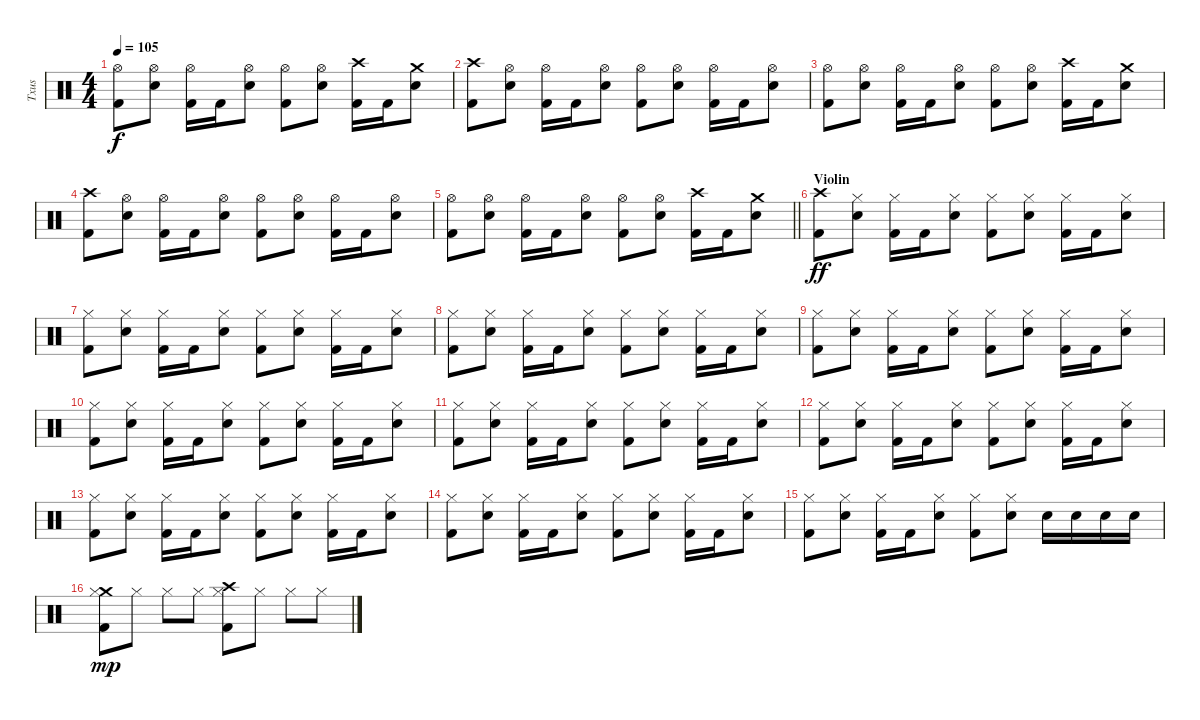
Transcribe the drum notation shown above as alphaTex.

\track ("Txus" "Txus") {instrument percussion}
\staff {score}
\articulation defaults
\ts (4 4)
\tempo 105
\clef neutral
\ks c
("Hi-Hat (open)" "Kick (hit) 2").8{dy f} ("Hi-Hat (open)" "Electric Snare (hit)").8 ("Hi-Hat (open)" "Kick (hit) 2").16 "Kick (hit) 2".16 ("Hi-Hat (open)" "Electric Snare (hit)").8 ("Hi-Hat (open)" "Kick (hit) 2").8 ("Hi-Hat (open)" "Electric Snare (hit)").8 ("Crash high (hit)" "Kick (hit) 2").16 "Kick (hit) 2".16 ("Crash medium (hit)" "Electric Snare (hit)").8 |
("Crash high (hit)" "Kick (hit) 2").8 ("Hi-Hat (open)" "Electric Snare (hit)").8 ("Hi-Hat (open)" "Kick (hit) 2").16 "Kick (hit) 2".16 ("Hi-Hat (open)" "Electric Snare (hit)").8 ("Hi-Hat (open)" "Kick (hit) 2").8 ("Hi-Hat (open)" "Electric Snare (hit)").8 ("Hi-Hat (open)" "Kick (hit) 2").16 "Kick (hit) 2".16 ("Hi-Hat (open)" "Electric Snare (hit)").8 |
("Hi-Hat (open)" "Kick (hit) 2").8 ("Hi-Hat (open)" "Electric Snare (hit)").8 ("Hi-Hat (open)" "Kick (hit) 2").16 "Kick (hit) 2".16 ("Hi-Hat (open)" "Electric Snare (hit)").8 ("Hi-Hat (open)" "Kick (hit) 2").8 ("Hi-Hat (open)" "Electric Snare (hit)").8 ("Crash high (hit)" "Kick (hit) 2").16 "Kick (hit) 2".16 ("Crash medium (hit)" "Electric Snare (hit)").8 |
("Crash high (hit)" "Kick (hit) 2").8 ("Hi-Hat (open)" "Electric Snare (hit)").8 ("Hi-Hat (open)" "Kick (hit) 2").16 "Kick (hit) 2".16 ("Hi-Hat (open)" "Electric Snare (hit)").8 ("Hi-Hat (open)" "Kick (hit) 2").8 ("Hi-Hat (open)" "Electric Snare (hit)").8 ("Hi-Hat (open)" "Kick (hit) 2").16 "Kick (hit) 2".16 ("Hi-Hat (open)" "Electric Snare (hit)").8 |
\barLineRight lightlight
("Hi-Hat (open)" "Kick (hit) 2").8 ("Hi-Hat (open)" "Electric Snare (hit)").8 ("Hi-Hat (open)" "Kick (hit) 2").16 "Kick (hit) 2".16 ("Hi-Hat (open)" "Electric Snare (hit)").8 ("Hi-Hat (open)" "Kick (hit) 2").8 ("Hi-Hat (open)" "Electric Snare (hit)").8 ("Crash high (hit)" "Kick (hit) 2").16 "Kick (hit) 2".16 ("Crash medium (hit)" "Electric Snare (hit)").8 |
\section ("" "Violin")
("Crash high (hit)" "Kick (hit) 2").8{dy ff} ("Hi-Hat (closed)" "Electric Snare (hit)").8 ("Hi-Hat (closed)" "Kick (hit) 2").16 "Kick (hit) 2".16 ("Hi-Hat (closed)" "Electric Snare (hit)").8 ("Hi-Hat (closed)" "Kick (hit) 2").8 ("Hi-Hat (closed)" "Electric Snare (hit)").8 ("Hi-Hat (closed)" "Kick (hit) 2").16 "Kick (hit) 2".16 ("Hi-Hat (closed)" "Electric Snare (hit)").8 |
("Hi-Hat (closed)" "Kick (hit) 2").8 ("Hi-Hat (closed)" "Electric Snare (hit)").8 ("Hi-Hat (closed)" "Kick (hit) 2").16 "Kick (hit) 2".16 ("Hi-Hat (closed)" "Electric Snare (hit)").8 ("Hi-Hat (closed)" "Kick (hit) 2").8 ("Hi-Hat (closed)" "Electric Snare (hit)").8 ("Hi-Hat (closed)" "Kick (hit) 2").16 "Kick (hit) 2".16 ("Hi-Hat (closed)" "Electric Snare (hit)").8 |
("Hi-Hat (closed)" "Kick (hit) 2").8 ("Hi-Hat (closed)" "Electric Snare (hit)").8 ("Hi-Hat (closed)" "Kick (hit) 2").16 "Kick (hit) 2".16 ("Hi-Hat (closed)" "Electric Snare (hit)").8 ("Hi-Hat (closed)" "Kick (hit) 2").8 ("Hi-Hat (closed)" "Electric Snare (hit)").8 ("Hi-Hat (closed)" "Kick (hit) 2").16 "Kick (hit) 2".16 ("Hi-Hat (closed)" "Electric Snare (hit)").8 |
("Hi-Hat (closed)" "Kick (hit) 2").8 ("Hi-Hat (closed)" "Electric Snare (hit)").8 ("Hi-Hat (closed)" "Kick (hit) 2").16 "Kick (hit) 2".16 ("Hi-Hat (closed)" "Electric Snare (hit)").8 ("Hi-Hat (closed)" "Kick (hit) 2").8 ("Hi-Hat (closed)" "Electric Snare (hit)").8 ("Hi-Hat (closed)" "Kick (hit) 2").16 "Kick (hit) 2".16 ("Hi-Hat (closed)" "Electric Snare (hit)").8 |
("Hi-Hat (closed)" "Kick (hit) 2").8 ("Hi-Hat (closed)" "Electric Snare (hit)").8 ("Hi-Hat (closed)" "Kick (hit) 2").16 "Kick (hit) 2".16 ("Hi-Hat (closed)" "Electric Snare (hit)").8 ("Hi-Hat (closed)" "Kick (hit) 2").8 ("Hi-Hat (closed)" "Electric Snare (hit)").8 ("Hi-Hat (closed)" "Kick (hit) 2").16 "Kick (hit) 2".16 ("Hi-Hat (closed)" "Electric Snare (hit)").8 |
("Hi-Hat (closed)" "Kick (hit) 2").8 ("Hi-Hat (closed)" "Electric Snare (hit)").8 ("Hi-Hat (closed)" "Kick (hit) 2").16 "Kick (hit) 2".16 ("Hi-Hat (closed)" "Electric Snare (hit)").8 ("Hi-Hat (closed)" "Kick (hit) 2").8 ("Hi-Hat (closed)" "Electric Snare (hit)").8 ("Hi-Hat (closed)" "Kick (hit) 2").16 "Kick (hit) 2".16 ("Hi-Hat (closed)" "Electric Snare (hit)").8 |
("Hi-Hat (closed)" "Kick (hit) 2").8 ("Hi-Hat (closed)" "Electric Snare (hit)").8 ("Hi-Hat (closed)" "Kick (hit) 2").16 "Kick (hit) 2".16 ("Hi-Hat (closed)" "Electric Snare (hit)").8 ("Hi-Hat (closed)" "Kick (hit) 2").8 ("Hi-Hat (closed)" "Electric Snare (hit)").8 ("Hi-Hat (closed)" "Kick (hit) 2").16 "Kick (hit) 2".16 ("Hi-Hat (closed)" "Electric Snare (hit)").8 |
("Hi-Hat (closed)" "Kick (hit) 2").8 ("Hi-Hat (closed)" "Electric Snare (hit)").8 ("Hi-Hat (closed)" "Kick (hit) 2").16 "Kick (hit) 2".16 ("Hi-Hat (closed)" "Electric Snare (hit)").8 ("Hi-Hat (closed)" "Kick (hit) 2").8 ("Hi-Hat (closed)" "Electric Snare (hit)").8 ("Hi-Hat (closed)" "Kick (hit) 2").16 "Kick (hit) 2".16 ("Hi-Hat (closed)" "Electric Snare (hit)").8 |
("Hi-Hat (closed)" "Kick (hit) 2").8 ("Hi-Hat (closed)" "Electric Snare (hit)").8 ("Hi-Hat (closed)" "Kick (hit) 2").16 "Kick (hit) 2".16 ("Hi-Hat (closed)" "Electric Snare (hit)").8 ("Hi-Hat (closed)" "Kick (hit) 2").8 ("Hi-Hat (closed)" "Electric Snare (hit)").8 ("Hi-Hat (closed)" "Kick (hit) 2").16 "Kick (hit) 2".16 ("Hi-Hat (closed)" "Electric Snare (hit)").8 |
("Hi-Hat (closed)" "Kick (hit) 2").8 ("Hi-Hat (closed)" "Electric Snare (hit)").8 ("Hi-Hat (closed)" "Kick (hit) 2").16 "Kick (hit) 2".16 ("Hi-Hat (closed)" "Electric Snare (hit)").8 ("Hi-Hat (closed)" "Kick (hit) 2").8 ("Hi-Hat (closed)" "Electric Snare (hit)").8 "Electric Snare (hit)".16 "Electric Snare (hit)".16 "Electric Snare (hit)".16 "Electric Snare (hit)".16 |
("Crash medium (hit)" "Hi-Hat (closed)" "Kick (hit) 2").8{dy mp} "Hi-Hat (closed)".8 "Hi-Hat (closed)".8 "Hi-Hat (closed)".8 ("Crash high (hit)" "Hi-Hat (closed)" "Kick (hit) 2").8 "Hi-Hat (closed)".8 "Hi-Hat (closed)".8 "Hi-Hat (closed)".8
